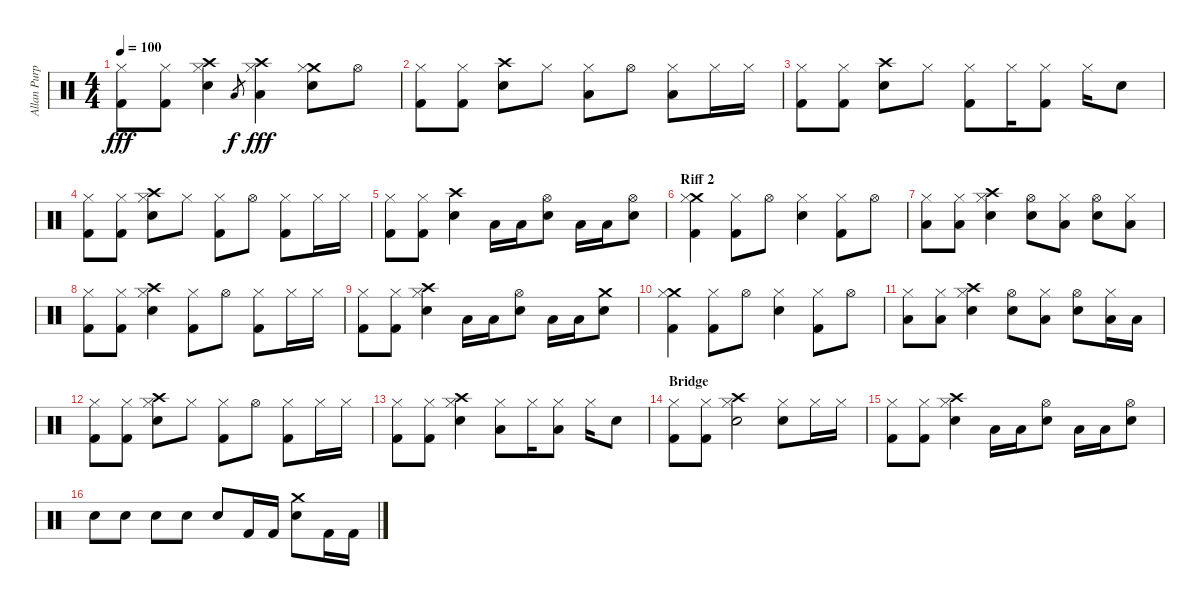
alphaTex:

\track ("Allan Purple" "Allan Purp") {instrument percussion}
\staff {score}
\articulation defaults
\ts (4 4)
\tempo 100
\clef neutral
\ks c
("Hi-Hat (closed)" "Kick (hit) 2").8{dy fff} ("Hi-Hat (closed)" "Kick (hit) 2").8 ("Crash high (hit)" "Hi-Hat (closed)" "Snare (hit) 2").4 "Low Tom (hit)".8{gr dy f} ("Crash high (hit)" "Hi-Hat (closed)" "Low Tom (hit)").4{dy fff} ("Crash medium (hit)" "Hi-Hat (closed)" "Electric Snare (hit)").8 "Hi-Hat (open)".8 |
("Hi-Hat (closed)" "Kick (hit) 2").8 ("Hi-Hat (closed)" "Kick (hit) 2").8 ("Crash high (hit)" "Snare (hit) 2").8 "Hi-Hat (closed)".8 ("Hi-Hat (closed)" "Low Tom (hit)").8 "Hi-Hat (open)".8 ("Hi-Hat (closed)" "Low Tom (hit)").8 "Hi-Hat (closed)".16 "Hi-Hat (closed)".16 |
("Hi-Hat (closed)" "Kick (hit) 2").8 ("Hi-Hat (closed)" "Kick (hit) 2").8 ("Crash high (hit)" "Snare (hit) 2").8 "Hi-Hat (closed)".8 ("Hi-Hat (closed)" "Kick (hit) 2").8 "Hi-Hat (closed)".16 ("Hi-Hat (closed)" "Kick (hit) 2").8 "Hi-Hat (closed)".16 "Electric Snare (hit)".8 |
("Hi-Hat (closed)" "Kick (hit) 2").8 ("Hi-Hat (closed)" "Kick (hit) 2").8 ("Crash high (hit)" "Hi-Hat (closed)" "Snare (hit) 2").8 "Hi-Hat (closed)".8 ("Hi-Hat (closed)" "Kick (hit) 2").8 "Hi-Hat (open)".8 ("Hi-Hat (closed)" "Kick (hit) 2").8 "Hi-Hat (closed)".16 "Hi-Hat (closed)".16 |
("Hi-Hat (closed)" "Kick (hit) 2").8 ("Hi-Hat (closed)" "Kick (hit) 2").8 ("Crash high (hit)" "Snare (hit) 2").4 "Low Tom (hit)".16 "Low Tom (hit)".16 ("Hi-Hat (open)" "Electric Snare (hit)").8 "Low Tom (hit)".16 "Low Tom (hit)".16 ("Hi-Hat (open)" "Electric Snare (hit)").8 |
\section ("" "Riff 2")
("Crash medium (hit)" "Hi-Hat (closed)" "Kick (hit) 2").4 ("Hi-Hat (closed)" "Kick (hit) 2").8 "Hi-Hat (open)".8 ("Hi-Hat (closed)" "Snare (hit) 2").4 ("Hi-Hat (closed)" "Kick (hit) 2").8 "Hi-Hat (open)".8 |
("Hi-Hat (closed)" "Low Tom (hit)").8 ("Hi-Hat (closed)" "Low Tom (hit)").8 ("Crash high (hit)" "Hi-Hat (closed)" "Electric Snare (hit)").4 ("Hi-Hat (open)" "Electric Snare (hit)").8 ("Hi-Hat (closed)" "Low Tom (hit)").8 ("Hi-Hat (open)" "Electric Snare (hit)").8 ("Hi-Hat (closed)" "Low Tom (hit)").8 |
("Hi-Hat (closed)" "Kick (hit) 2").8 ("Hi-Hat (closed)" "Kick (hit) 2").8 ("Crash high (hit)" "Hi-Hat (closed)" "Snare (hit) 2").4 ("Hi-Hat (closed)" "Kick (hit) 2").8 "Hi-Hat (open)".8 ("Hi-Hat (closed)" "Kick (hit) 2").8 "Hi-Hat (closed)".16 "Hi-Hat (closed)".16 |
("Hi-Hat (closed)" "Kick (hit) 2").8 ("Hi-Hat (closed)" "Kick (hit) 2").8 ("Crash high (hit)" "Hi-Hat (closed)" "Snare (hit) 2").4 "Low Tom (hit)".16 "Low Tom (hit)".16 ("Hi-Hat (open)" "Electric Snare (hit)").8 "Low Tom (hit)".16 "Low Tom (hit)".16 ("Crash medium (hit)" "Electric Snare (hit)").8 |
("Crash medium (hit)" "Hi-Hat (closed)" "Kick (hit) 2").4 ("Hi-Hat (closed)" "Kick (hit) 2").8 "Hi-Hat (open)".8 ("Hi-Hat (closed)" "Snare (hit) 2").4 ("Hi-Hat (closed)" "Kick (hit) 2").8 "Hi-Hat (open)".8 |
("Hi-Hat (closed)" "Low Tom (hit)").8 ("Hi-Hat (closed)" "Low Tom (hit)").8 ("Crash high (hit)" "Hi-Hat (closed)" "Electric Snare (hit)").4 ("Hi-Hat (open)" "Electric Snare (hit)").8 ("Hi-Hat (closed)" "Low Tom (hit)").8 ("Hi-Hat (open)" "Electric Snare (hit)").8 ("Hi-Hat (closed)" "Low Tom (hit)").16 "Low Tom (hit)".16 |
("Hi-Hat (closed)" "Kick (hit) 2").8 ("Hi-Hat (closed)" "Kick (hit) 2").8 ("Crash high (hit)" "Hi-Hat (closed)" "Snare (hit) 2").8 "Hi-Hat (closed)".8 ("Hi-Hat (closed)" "Kick (hit) 2").8 "Hi-Hat (open)".8 ("Hi-Hat (closed)" "Kick (hit) 2").8 "Hi-Hat (closed)".16 "Hi-Hat (closed)".16 |
("Hi-Hat (closed)" "Kick (hit) 2").8 ("Hi-Hat (closed)" "Kick (hit) 2").8 ("Crash high (hit)" "Hi-Hat (closed)" "Snare (hit) 2").4 ("Hi-Hat (closed)" "Low Tom (hit)").8 "Hi-Hat (closed)".16 ("Hi-Hat (closed)" "Low Tom (hit)").8 "Hi-Hat (closed)".16 "Electric Snare (hit)".8 |
\section ("" "Bridge")
("Hi-Hat (closed)" "Kick (hit) 2").8 ("Hi-Hat (closed)" "Kick (hit) 2").8 ("Crash high (hit)" "Hi-Hat (closed)" "Snare (hit) 2").2 ("Hi-Hat (closed)" "Electric Snare (hit)").8 "Hi-Hat (closed)".16 "Hi-Hat (closed)".16 |
("Hi-Hat (closed)" "Kick (hit) 2").8 ("Hi-Hat (closed)" "Kick (hit) 2").8 ("Crash high (hit)" "Hi-Hat (closed)" "Snare (hit) 2").4 "Low Tom (hit)".16 "Low Tom (hit)".16 ("Hi-Hat (open)" "Electric Snare (hit)").8 "Low Tom (hit)".16 "Low Tom (hit)".16 ("Hi-Hat (open)" "Electric Snare (hit)").8 |
"Electric Snare (hit)".8 "Electric Snare (hit)".8 "Electric Snare (hit)".8 "Electric Snare (hit)".8 "Electric Snare (hit)".8 "Kick (hit) 2".16 "Kick (hit) 2".16 ("Crash medium (hit)" "Snare (hit) 2").8 "Kick (hit) 2".16 "Kick (hit) 2".16
